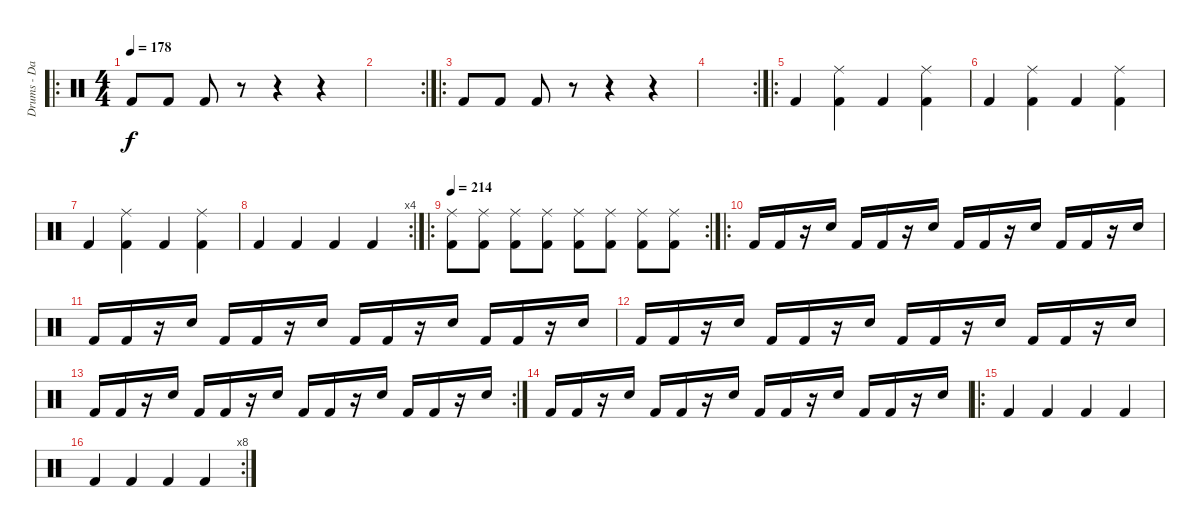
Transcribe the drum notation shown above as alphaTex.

\track ("Drums - Dave Lombardo" "Drums - Da") {instrument percussion}
\staff {score}
\articulation defaults
\ro
\ts (4 4)
\tempo 178
\clef neutral
\ks c "Kick (hit) 2".8{dy f} "Kick (hit) 2".8 "Kick (hit) 2".8
r.8 r.4 r.4 |
\rc 2
|
\ro "Kick (hit) 2".8 "Kick (hit) 2".8 "Kick (hit) 2".8
r.8 r.4 r.4 |
\rc 2
|
\ro "Kick (hit) 2".4
("Ride (middle)" "Kick (hit) 2").4 "Kick (hit) 2".4 ("Ride (middle)" "Kick (hit) 2").4 |
"Kick (hit) 2".4 ("Ride (middle)" "Kick (hit) 2").4 "Kick (hit) 2".4 ("Ride (middle)" "Kick (hit) 2").4 |
"Kick (hit) 2".4 ("Ride (middle)" "Kick (hit) 2").4 "Kick (hit) 2".4 ("Ride (middle)" "Kick (hit) 2").4 |
\rc 4 "Kick (hit) 2".4 "Kick (hit) 2".4 "Kick (hit) 2".4 "Kick (hit) 2".4
|
\ro
\rc 2
\tempo 214
("Ride (middle)" "Kick (hit) 2").8 ("Ride (middle)" "Kick (hit) 2").8 ("Ride (middle)" "Kick (hit) 2").8 ("Ride (middle)" "Kick (hit) 2").8 ("Ride (middle)" "Kick (hit) 2").8 ("Ride (middle)" "Kick (hit) 2").8 ("Ride (middle)" "Kick (hit) 2").8 ("Ride (middle)" "Kick (hit) 2").8 |
\ro "Kick (hit) 2".16 "Kick (hit) 2".16
r.16 "Electric Snare (hit)".16 "Kick (hit) 2".16 "Kick (hit) 2".16 r.16 "Electric Snare (hit)".16 "Kick (hit) 2".16 "Kick (hit) 2".16 r.16 "Electric Snare (hit)".16 "Kick (hit) 2".16 "Kick (hit) 2".16 r.16 "Electric Snare (hit)".16 |
"Kick (hit) 2".16 "Kick (hit) 2".16 r.16 "Electric Snare (hit)".16 "Kick (hit) 2".16 "Kick (hit) 2".16 r.16 "Electric Snare (hit)".16 "Kick (hit) 2".16 "Kick (hit) 2".16 r.16 "Electric Snare (hit)".16 "Kick (hit) 2".16 "Kick (hit) 2".16 r.16 "Electric Snare (hit)".16 |
"Kick (hit) 2".16 "Kick (hit) 2".16 r.16 "Electric Snare (hit)".16 "Kick (hit) 2".16 "Kick (hit) 2".16 r.16 "Electric Snare (hit)".16 "Kick (hit) 2".16 "Kick (hit) 2".16 r.16 "Electric Snare (hit)".16 "Kick (hit) 2".16 "Kick (hit) 2".16 r.16 "Electric Snare (hit)".16 |
\rc 2 "Kick (hit) 2".16 "Kick (hit) 2".16
r.16 "Electric Snare (hit)".16 "Kick (hit) 2".16 "Kick (hit) 2".16 r.16 "Electric Snare (hit)".16 "Kick (hit) 2".16 "Kick (hit) 2".16 r.16 "Electric Snare (hit)".16 "Kick (hit) 2".16 "Kick (hit) 2".16 r.16 "Electric Snare (hit)".16 |
"Kick (hit) 2".16 "Kick (hit) 2".16 r.16 "Electric Snare (hit)".16 "Kick (hit) 2".16 "Kick (hit) 2".16 r.16 "Electric Snare (hit)".16 "Kick (hit) 2".16 "Kick (hit) 2".16 r.16 "Electric Snare (hit)".16 "Kick (hit) 2".16 "Kick (hit) 2".16 r.16 "Electric Snare (hit)".16 |
\ro "Kick (hit) 2".4 "Kick (hit) 2".4 "Kick (hit) 2".4 "Kick (hit) 2".4
|
\rc 8 "Kick (hit) 2".4 "Kick (hit) 2".4 "Kick (hit) 2".4 "Kick (hit) 2".4
